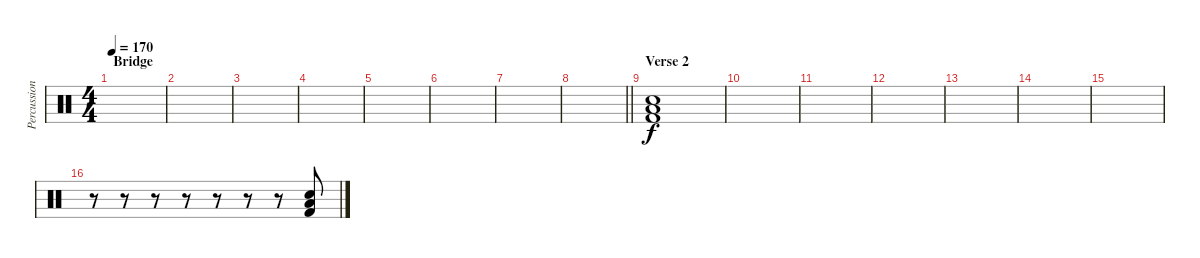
\track ("Percussion" "Percussion") {instrument percussion}
\staff {score}
\articulation defaults
\ts (4 4)
\section ("" "Bridge")
\tempo 170
\clef neutral
\ks c
|
|
|
|
|
|
|
\barLineRight lightlight
|
\section ("" "Verse 2")
("Kick (hit) 2" "Electric Snare (hit)" "Low Floor Tom (hit)").1 |
|
|
|
|
|
|
r.8 r.8 r.8 r.8 r.8 r.8 r.8 ("Kick (hit) 2" "Electric Snare (hit)" "Low Floor Tom (hit)").8
